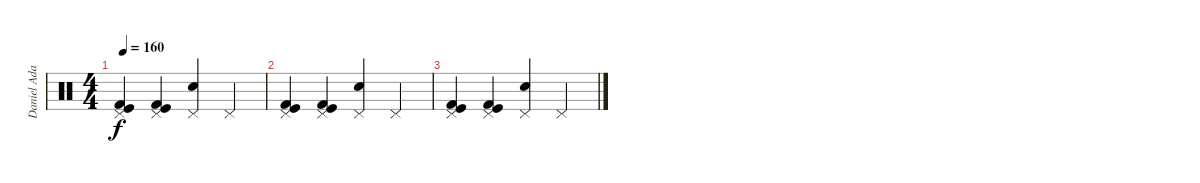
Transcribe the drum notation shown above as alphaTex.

\track ("Daniel Adair" "Daniel Ada") {instrument percussion}
\staff {score}
\articulation defaults
\ts (4 4)
\tempo 160
\clef neutral
\ks c
("Pedal Hi-Hat (hit)" "Kick (hit)" "Kick (hit) 2").4{dy f} ("Pedal Hi-Hat (hit)" "Kick (hit)" "Kick (hit) 2").4 ("Pedal Hi-Hat (hit)" "Electric Snare (hit)").4 "Pedal Hi-Hat (hit)".4 |
("Pedal Hi-Hat (hit)" "Kick (hit)" "Kick (hit) 2").4 ("Pedal Hi-Hat (hit)" "Kick (hit)" "Kick (hit) 2").4 ("Pedal Hi-Hat (hit)" "Electric Snare (hit)").4 "Pedal Hi-Hat (hit)".4 |
("Pedal Hi-Hat (hit)" "Kick (hit)" "Kick (hit) 2").4 ("Pedal Hi-Hat (hit)" "Kick (hit)" "Kick (hit) 2").4 ("Pedal Hi-Hat (hit)" "Electric Snare (hit)").4 "Pedal Hi-Hat (hit)".4
